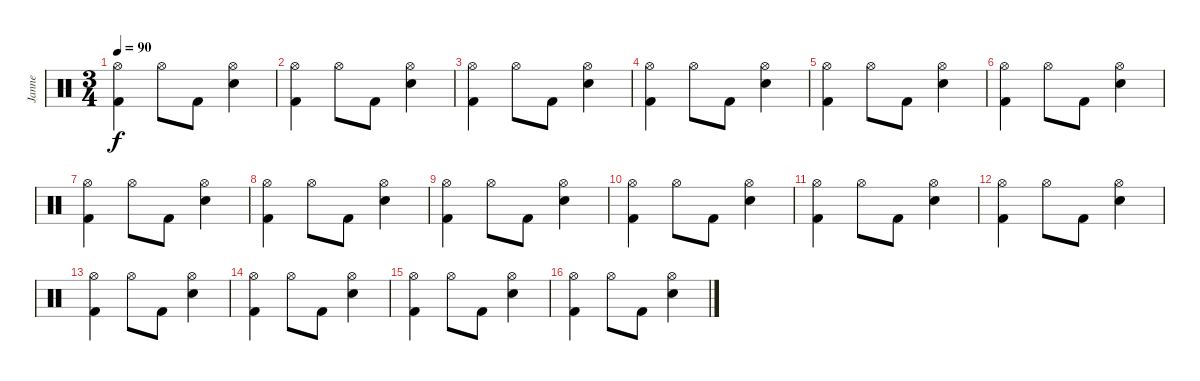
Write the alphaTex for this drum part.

\track ("Janne" "Janne") {instrument percussion}
\staff {score}
\articulation defaults
\ts (3 4)
\tempo 90
\clef neutral
\ks c
("Hi-Hat (open)" "Kick (hit) 2").4{dy f} "Hi-Hat (open)".8 "Kick (hit) 2".8 ("Hi-Hat (open)" "Electric Snare (hit)").4 |
("Hi-Hat (open)" "Kick (hit) 2").4 "Hi-Hat (open)".8 "Kick (hit) 2".8 ("Hi-Hat (open)" "Electric Snare (hit)").4 |
("Hi-Hat (open)" "Kick (hit) 2").4 "Hi-Hat (open)".8 "Kick (hit) 2".8 ("Hi-Hat (open)" "Electric Snare (hit)").4 |
("Hi-Hat (open)" "Kick (hit) 2").4 "Hi-Hat (open)".8 "Kick (hit) 2".8 ("Hi-Hat (open)" "Electric Snare (hit)").4 |
("Hi-Hat (open)" "Kick (hit) 2").4 "Hi-Hat (open)".8 "Kick (hit) 2".8 ("Hi-Hat (open)" "Electric Snare (hit)").4 |
("Hi-Hat (open)" "Kick (hit) 2").4 "Hi-Hat (open)".8 "Kick (hit) 2".8 ("Hi-Hat (open)" "Electric Snare (hit)").4 |
("Hi-Hat (open)" "Kick (hit) 2").4 "Hi-Hat (open)".8 "Kick (hit) 2".8 ("Hi-Hat (open)" "Electric Snare (hit)").4 |
("Hi-Hat (open)" "Kick (hit) 2").4 "Hi-Hat (open)".8 "Kick (hit) 2".8 ("Hi-Hat (open)" "Electric Snare (hit)").4 |
("Hi-Hat (open)" "Kick (hit) 2").4 "Hi-Hat (open)".8 "Kick (hit) 2".8 ("Hi-Hat (open)" "Electric Snare (hit)").4 |
("Hi-Hat (open)" "Kick (hit) 2").4 "Hi-Hat (open)".8 "Kick (hit) 2".8 ("Hi-Hat (open)" "Electric Snare (hit)").4 |
("Hi-Hat (open)" "Kick (hit) 2").4 "Hi-Hat (open)".8 "Kick (hit) 2".8 ("Hi-Hat (open)" "Electric Snare (hit)").4 |
("Hi-Hat (open)" "Kick (hit) 2").4 "Hi-Hat (open)".8 "Kick (hit) 2".8 ("Hi-Hat (open)" "Electric Snare (hit)").4 |
("Hi-Hat (open)" "Kick (hit) 2").4 "Hi-Hat (open)".8 "Kick (hit) 2".8 ("Hi-Hat (open)" "Electric Snare (hit)").4 |
("Hi-Hat (open)" "Kick (hit) 2").4 "Hi-Hat (open)".8 "Kick (hit) 2".8 ("Hi-Hat (open)" "Electric Snare (hit)").4 |
("Hi-Hat (open)" "Kick (hit) 2").4 "Hi-Hat (open)".8 "Kick (hit) 2".8 ("Hi-Hat (open)" "Electric Snare (hit)").4 |
("Hi-Hat (open)" "Kick (hit) 2").4 "Hi-Hat (open)".8 "Kick (hit) 2".8 ("Hi-Hat (open)" "Electric Snare (hit)").4
